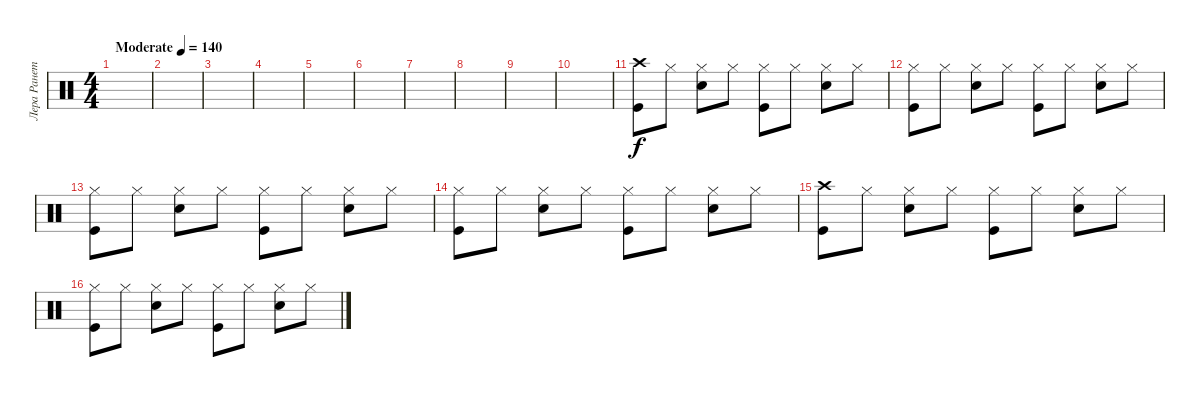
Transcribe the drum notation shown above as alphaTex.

\track ("Лера Ранетка" "Лера Ранет") {instrument percussion}
\staff {score}
\articulation defaults
\ts (4 4)
\tempo (140 "Moderate")
\clef neutral
\ks c
|
|
|
|
|
|
|
|
|
|
("Crash high (hit)" "Kick (hit)").8 "Hi-Hat (closed)".8 ("Hi-Hat (closed)" "Electric Snare (hit)").8 "Hi-Hat (closed)".8 ("Hi-Hat (closed)" "Kick (hit)").8 "Hi-Hat (closed)".8 ("Hi-Hat (closed)" "Electric Snare (hit)").8 "Hi-Hat (closed)".8 |
("Hi-Hat (closed)" "Kick (hit)").8 "Hi-Hat (closed)".8 ("Hi-Hat (closed)" "Electric Snare (hit)").8 "Hi-Hat (closed)".8 ("Hi-Hat (closed)" "Kick (hit)").8 "Hi-Hat (closed)".8 ("Hi-Hat (closed)" "Electric Snare (hit)").8 "Hi-Hat (closed)".8 |
("Hi-Hat (closed)" "Kick (hit)").8 "Hi-Hat (closed)".8 ("Hi-Hat (closed)" "Electric Snare (hit)").8 "Hi-Hat (closed)".8 ("Hi-Hat (closed)" "Kick (hit)").8 "Hi-Hat (closed)".8 ("Hi-Hat (closed)" "Electric Snare (hit)").8 "Hi-Hat (closed)".8 |
("Hi-Hat (closed)" "Kick (hit)").8 "Hi-Hat (closed)".8 ("Hi-Hat (closed)" "Electric Snare (hit)").8 "Hi-Hat (closed)".8 ("Hi-Hat (closed)" "Kick (hit)").8 "Hi-Hat (closed)".8 ("Hi-Hat (closed)" "Electric Snare (hit)").8 "Hi-Hat (closed)".8 |
("Crash high (hit)" "Kick (hit)").8 "Hi-Hat (closed)".8 ("Hi-Hat (closed)" "Electric Snare (hit)").8 "Hi-Hat (closed)".8 ("Hi-Hat (closed)" "Kick (hit)").8 "Hi-Hat (closed)".8 ("Hi-Hat (closed)" "Electric Snare (hit)").8 "Hi-Hat (closed)".8 |
("Hi-Hat (closed)" "Kick (hit)").8 "Hi-Hat (closed)".8 ("Hi-Hat (closed)" "Electric Snare (hit)").8 "Hi-Hat (closed)".8 ("Hi-Hat (closed)" "Kick (hit)").8 "Hi-Hat (closed)".8 ("Hi-Hat (closed)" "Electric Snare (hit)").8 "Hi-Hat (closed)".8
